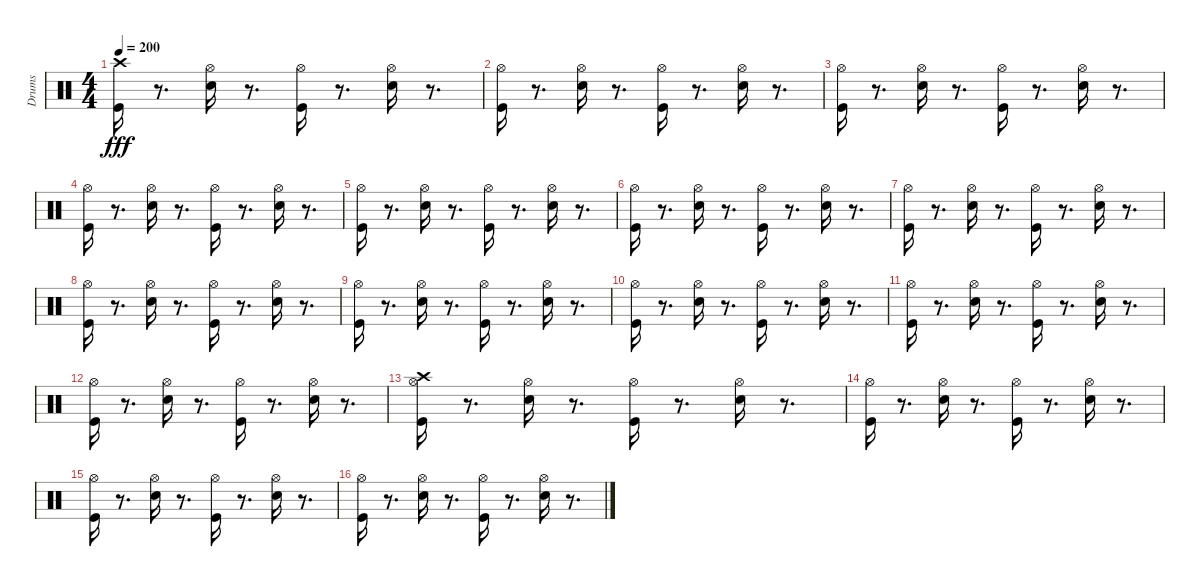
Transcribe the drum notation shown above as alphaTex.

\track ("Drums" "Drums") {instrument percussion}
\staff {score}
\articulation defaults
\ts (4 4)
\tempo 200
\clef neutral
\ks c
("Kick (hit)" "Crash high (hit)").16{dy fff} r.8{d} ("Hi-Hat (open)" "Snare (hit) 2").16 r.8{d} ("Hi-Hat (open)" "Kick (hit)").16 r.8{d} ("Hi-Hat (open)" "Snare (hit) 2").16 r.8{d} |
("Hi-Hat (open)" "Kick (hit)").16 r.8{d} ("Hi-Hat (open)" "Snare (hit) 2").16 r.8{d} ("Hi-Hat (open)" "Kick (hit)").16 r.8{d} ("Hi-Hat (open)" "Snare (hit) 2").16 r.8{d} |
("Hi-Hat (open)" "Kick (hit)").16 r.8{d} ("Hi-Hat (open)" "Snare (hit) 2").16 r.8{d} ("Hi-Hat (open)" "Kick (hit)").16 r.8{d} ("Hi-Hat (open)" "Snare (hit) 2").16 r.8{d} |
("Hi-Hat (open)" "Kick (hit)").16 r.8{d} ("Hi-Hat (open)" "Snare (hit) 2").16 r.8{d} ("Hi-Hat (open)" "Kick (hit)").16 r.8{d} ("Hi-Hat (open)" "Snare (hit) 2").16 r.8{d} |
("Hi-Hat (open)" "Kick (hit)").16 r.8{d} ("Hi-Hat (open)" "Snare (hit) 2").16 r.8{d} ("Kick (hit)" "Hi-Hat (open)").16 r.8{d} ("Hi-Hat (open)" "Snare (hit) 2").16 r.8{d} |
("Kick (hit)" "Hi-Hat (open)").16 r.8{d} ("Hi-Hat (open)" "Snare (hit) 2").16 r.8{d} ("Hi-Hat (open)" "Kick (hit)").16 r.8{d} ("Hi-Hat (open)" "Snare (hit) 2").16 r.8{d} |
("Kick (hit)" "Hi-Hat (open)").16 r.8{d} ("Hi-Hat (open)" "Snare (hit) 2").16 r.8{d} ("Hi-Hat (open)" "Kick (hit)").16 r.8{d} ("Hi-Hat (open)" "Snare (hit) 2").16 r.8{d} |
("Kick (hit)" "Hi-Hat (open)").16 r.8{d} ("Snare (hit) 2" "Hi-Hat (open)").16 r.8{d} ("Hi-Hat (open)" "Kick (hit)").16 r.8{d} ("Hi-Hat (open)" "Snare (hit) 2").16 r.8{d} |
("Hi-Hat (open)" "Kick (hit)").16 r.8{d} ("Snare (hit) 2" "Hi-Hat (open)").16 r.8{d} ("Kick (hit)" "Hi-Hat (open)").16 r.8{d} ("Snare (hit) 2" "Hi-Hat (open)").16 r.8{d} |
("Kick (hit)" "Hi-Hat (open)").16 r.8{d} ("Hi-Hat (open)" "Snare (hit) 2").16 r.8{d} ("Hi-Hat (open)" "Kick (hit)").16 r.8{d} ("Hi-Hat (open)" "Snare (hit) 2").16 r.8{d} |
("Hi-Hat (open)" "Kick (hit)").16 r.8{d} ("Hi-Hat (open)" "Snare (hit) 2").16 r.8{d} ("Hi-Hat (open)" "Kick (hit)").16 r.8{d} ("Hi-Hat (open)" "Snare (hit) 2").16 r.8{d} |
("Kick (hit)" "Hi-Hat (open)").16 r.8{d} ("Snare (hit) 2" "Hi-Hat (open)").16 r.8{d} ("Hi-Hat (open)" "Kick (hit)").16 r.8{d} ("Hi-Hat (open)" "Snare (hit) 2").16 r.8{d} |
("Crash high (hit)" "Hi-Hat (open)" "Kick (hit)").16 r.8{d} ("Hi-Hat (open)" "Snare (hit) 2").16 r.8{d} ("Hi-Hat (open)" "Kick (hit)").16 r.8{d} ("Hi-Hat (open)" "Snare (hit) 2").16 r.8{d} |
("Kick (hit)" "Hi-Hat (open)").16 r.8{d} ("Hi-Hat (open)" "Snare (hit) 2").16 r.8{d} ("Kick (hit)" "Hi-Hat (open)").16 r.8{d} ("Hi-Hat (open)" "Snare (hit) 2").16 r.8{d} |
("Hi-Hat (open)" "Kick (hit)").16 r.8{d} ("Snare (hit) 2" "Hi-Hat (open)").16 r.8{d} ("Kick (hit)" "Hi-Hat (open)").16 r.8{d} ("Snare (hit) 2" "Hi-Hat (open)").16 r.8{d} |
("Kick (hit)" "Hi-Hat (open)").16 r.8{d} ("Snare (hit) 2" "Hi-Hat (open)").16 r.8{d} ("Hi-Hat (open)" "Kick (hit)").16 r.8{d} ("Snare (hit) 2" "Hi-Hat (open)").16 r.8{d}
